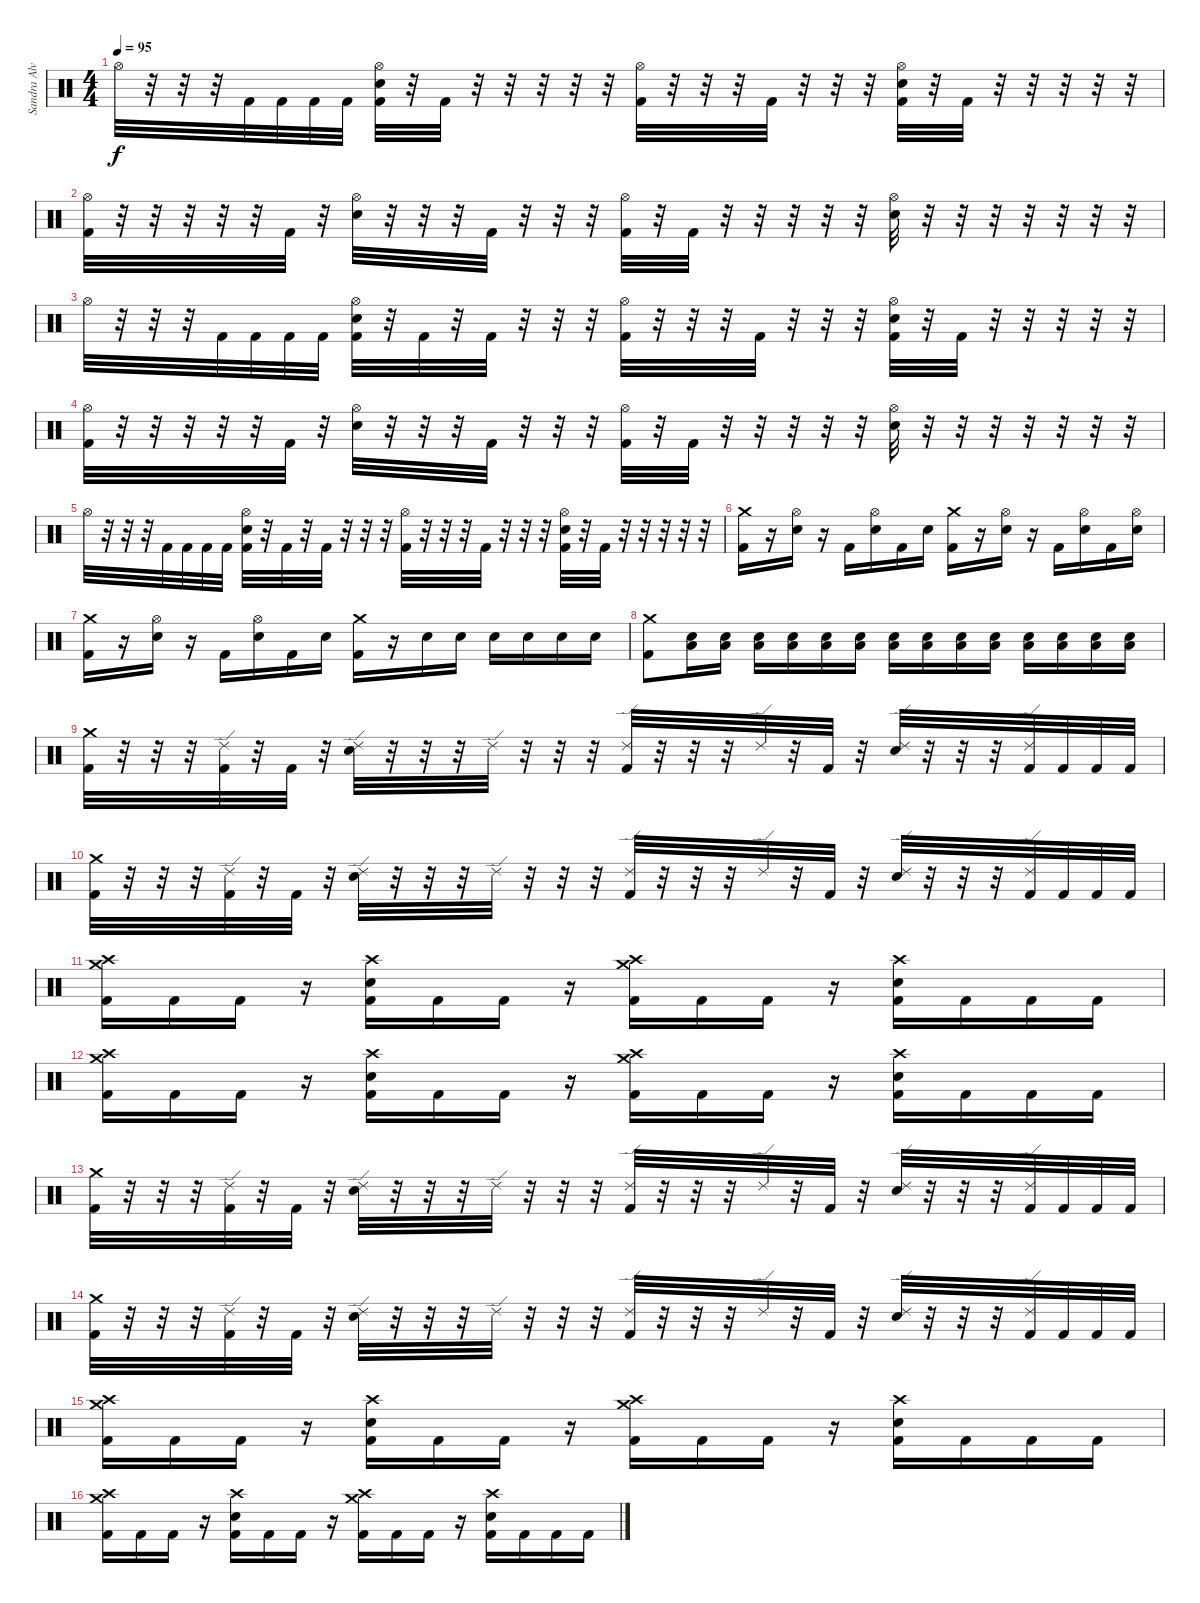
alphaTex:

\track ("Sandra Alvarenga" "Sandra Alv") {instrument percussion}
\staff
\articulation defaults
\ts (4 4)
\tempo 95
\clef neutral
\ks c "Hi-Hat (open)".32{dy f}
r.32 r.32 r.32 "Kick (hit) 2".32 "Kick (hit) 2".32 "Kick (hit) 2".32 "Kick (hit) 2".32 ("Hi-Hat (open)" "Electric Snare (hit)" "Kick (hit) 2").32 r.32 "Kick (hit) 2".32 r.32 r.32 r.32 r.32 r.32 ("Hi-Hat (open)" "Kick (hit) 2").32 r.32 r.32 r.32 "Kick (hit) 2".32 r.32 r.32 r.32 ("Hi-Hat (open)" "Electric Snare (hit)" "Kick (hit) 2").32 r.32 "Kick (hit) 2".32 r.32 r.32 r.32 r.32 r.32 |
("Hi-Hat (open)" "Kick (hit) 2").32 r.32 r.32 r.32 r.32 r.32 "Kick (hit) 2".32 r.32 ("Hi-Hat (open)" "Electric Snare (hit)").32 r.32 r.32 r.32 "Kick (hit) 2".32 r.32 r.32 r.32 ("Hi-Hat (open)" "Kick (hit) 2").32 r.32 "Kick (hit) 2".32 r.32 r.32 r.32 r.32 r.32 ("Hi-Hat (open)" "Electric Snare (hit)").32 r.32 r.32 r.32 r.32 r.32 r.32 r.32 |
"Hi-Hat (open)".32 r.32 r.32 r.32 "Kick (hit) 2".32 "Kick (hit) 2".32 "Kick (hit) 2".32 "Kick (hit) 2".32 ("Hi-Hat (open)" "Electric Snare (hit)" "Kick (hit) 2").32 r.32 "Kick (hit) 2".32 r.32 "Kick (hit) 2".32 r.32 r.32 r.32 ("Hi-Hat (open)" "Kick (hit) 2").32 r.32 r.32 r.32 "Kick (hit) 2".32 r.32 r.32 r.32 ("Hi-Hat (open)" "Electric Snare (hit)" "Kick (hit) 2").32 r.32 "Kick (hit) 2".32 r.32 r.32 r.32 r.32 r.32 |
("Hi-Hat (open)" "Kick (hit) 2").32 r.32 r.32 r.32 r.32 r.32 "Kick (hit) 2".32 r.32 ("Hi-Hat (open)" "Electric Snare (hit)").32 r.32 r.32 r.32 "Kick (hit) 2".32 r.32 r.32 r.32 ("Hi-Hat (open)" "Kick (hit) 2").32 r.32 "Kick (hit) 2".32 r.32 r.32 r.32 r.32 r.32 ("Hi-Hat (open)" "Electric Snare (hit)").32 r.32 r.32 r.32 r.32 r.32 r.32 r.32 |
"Hi-Hat (open)".32 r.32 r.32 r.32 "Kick (hit) 2".32 "Kick (hit) 2".32 "Kick (hit) 2".32 "Kick (hit) 2".32 ("Hi-Hat (open)" "Electric Snare (hit)" "Kick (hit) 2").32 r.32 "Kick (hit) 2".32 r.32 "Kick (hit) 2".32 r.32 r.32 r.32 ("Hi-Hat (open)" "Kick (hit) 2").32 r.32 r.32 r.32 "Kick (hit) 2".32 r.32 r.32 r.32 ("Hi-Hat (open)" "Electric Snare (hit)" "Kick (hit) 2").32 r.32 "Kick (hit) 2".32 r.32 r.32 r.32 r.32 r.32 |
("Crash medium (hit)" "Kick (hit) 2").16 r.16 ("Hi-Hat (open)" "Electric Snare (hit)").16 r.16 "Kick (hit) 2".16 ("Hi-Hat (open)" "Electric Snare (hit)").16 "Kick (hit) 2".16 "Electric Snare (hit)".16 ("Crash medium (hit)" "Kick (hit) 2").16 r.16 ("Hi-Hat (open)" "Electric Snare (hit)").16 r.16 "Kick (hit) 2".16 ("Hi-Hat (open)" "Electric Snare (hit)").16 "Kick (hit) 2".16 ("Hi-Hat (open)" "Electric Snare (hit)").16 |
("Crash medium (hit)" "Kick (hit) 2").16 r.16 ("Hi-Hat (open)" "Electric Snare (hit)").16 r.16 "Kick (hit) 2".16 ("Hi-Hat (open)" "Electric Snare (hit)").16 "Kick (hit) 2".16 "Electric Snare (hit)".16 ("Crash medium (hit)" "Kick (hit) 2").16 r.16 "Electric Snare (hit)".16 "Electric Snare (hit)".16 "Electric Snare (hit)".16 "Electric Snare (hit)".16 "Electric Snare (hit)".16 "Electric Snare (hit)".16 |
("Crash medium (hit)" "Kick (hit) 2").8 ("Low Floor Tom (hit)" "Electric Snare (hit)").16 ("Low Floor Tom (hit)" "Electric Snare (hit)").16 ("Low Floor Tom (hit)" "Electric Snare (hit)").16 ("Low Floor Tom (hit)" "Electric Snare (hit)").16 ("Low Floor Tom (hit)" "Electric Snare (hit)").16 ("Low Floor Tom (hit)" "Electric Snare (hit)").16 ("Low Floor Tom (hit)" "Electric Snare (hit)").16 ("Low Floor Tom (hit)" "Electric Snare (hit)").16 ("Low Floor Tom (hit)" "Electric Snare (hit)").16 ("Low Floor Tom (hit)" "Electric Snare (hit)").16 ("Low Floor Tom (hit)" "Electric Snare (hit)").16 ("Low Floor Tom (hit)" "Electric Snare (hit)").16 ("Low Floor Tom (hit)" "Electric Snare (hit)").16 ("Low Floor Tom (hit)" "Electric Snare (hit)").16 |
("Crash medium (hit)" "Kick (hit) 2").32 r.32 r.32 r.32 ("Ride (edge) 2" "Kick (hit) 2").32 r.32 "Kick (hit) 2".32 r.32 ("Ride (edge) 2" "Electric Snare (hit)").32 r.32 r.32 r.32 "Ride (edge) 2".32 r.32 r.32 r.32 ("Ride (edge) 2" "Kick (hit) 2").32 r.32 r.32 r.32 "Ride (edge) 2".32 r.32 "Kick (hit) 2".32 r.32 ("Ride (edge) 2" "Electric Snare (hit)").32 r.32 r.32 r.32 ("Ride (edge) 2" "Kick (hit) 2").32 "Kick (hit) 2".32 "Kick (hit) 2".32 "Kick (hit) 2".32 |
("Crash medium (hit)" "Kick (hit) 2").32 r.32 r.32 r.32 ("Ride (edge) 2" "Kick (hit) 2").32 r.32 "Kick (hit) 2".32 r.32 ("Ride (edge) 2" "Electric Snare (hit)").32 r.32 r.32 r.32 "Ride (edge) 2".32 r.32 r.32 r.32 ("Ride (edge) 2" "Kick (hit) 2").32 r.32 r.32 r.32 "Ride (edge) 2".32 r.32 "Kick (hit) 2".32 r.32 ("Ride (edge) 2" "Electric Snare (hit)").32 r.32 r.32 r.32 ("Ride (edge) 2" "Kick (hit) 2").32 "Kick (hit) 2".32 "Kick (hit) 2".32 "Kick (hit) 2".32 |
("Crash medium (hit)" "Crash high (hit)" "Kick (hit) 2").16 "Kick (hit) 2".16 "Kick (hit) 2".16 r.16 ("Crash high (hit)" "Electric Snare (hit)" "Kick (hit) 2").16 "Kick (hit) 2".16 "Kick (hit) 2".16 r.16 ("Crash medium (hit)" "Crash high (hit)" "Kick (hit) 2").16 "Kick (hit) 2".16 "Kick (hit) 2".16 r.16 ("Crash high (hit)" "Electric Snare (hit)" "Kick (hit) 2").16 "Kick (hit) 2".16 "Kick (hit) 2".16 "Kick (hit) 2".16 |
("Crash medium (hit)" "Crash high (hit)" "Kick (hit) 2").16 "Kick (hit) 2".16 "Kick (hit) 2".16 r.16 ("Crash high (hit)" "Electric Snare (hit)" "Kick (hit) 2").16 "Kick (hit) 2".16 "Kick (hit) 2".16 r.16 ("Crash medium (hit)" "Crash high (hit)" "Kick (hit) 2").16 "Kick (hit) 2".16 "Kick (hit) 2".16 r.16 ("Crash high (hit)" "Electric Snare (hit)" "Kick (hit) 2").16 "Kick (hit) 2".16 "Kick (hit) 2".16 "Kick (hit) 2".16 |
("Crash medium (hit)" "Kick (hit) 2").32 r.32 r.32 r.32 ("Ride (edge) 2" "Kick (hit) 2").32 r.32 "Kick (hit) 2".32 r.32 ("Ride (edge) 2" "Electric Snare (hit)").32 r.32 r.32 r.32 "Ride (edge) 2".32 r.32 r.32 r.32 ("Ride (edge) 2" "Kick (hit) 2").32 r.32 r.32 r.32 "Ride (edge) 2".32 r.32 "Kick (hit) 2".32 r.32 ("Ride (edge) 2" "Electric Snare (hit)").32 r.32 r.32 r.32 ("Ride (edge) 2" "Kick (hit) 2").32 "Kick (hit) 2".32 "Kick (hit) 2".32 "Kick (hit) 2".32 |
("Crash medium (hit)" "Kick (hit) 2").32 r.32 r.32 r.32 ("Ride (edge) 2" "Kick (hit) 2").32 r.32 "Kick (hit) 2".32 r.32 ("Ride (edge) 2" "Electric Snare (hit)").32 r.32 r.32 r.32 "Ride (edge) 2".32 r.32 r.32 r.32 ("Ride (edge) 2" "Kick (hit) 2").32 r.32 r.32 r.32 "Ride (edge) 2".32 r.32 "Kick (hit) 2".32 r.32 ("Ride (edge) 2" "Electric Snare (hit)").32 r.32 r.32 r.32 ("Ride (edge) 2" "Kick (hit) 2").32 "Kick (hit) 2".32 "Kick (hit) 2".32 "Kick (hit) 2".32 |
("Crash medium (hit)" "Crash high (hit)" "Kick (hit) 2").16 "Kick (hit) 2".16 "Kick (hit) 2".16 r.16 ("Crash high (hit)" "Electric Snare (hit)" "Kick (hit) 2").16 "Kick (hit) 2".16 "Kick (hit) 2".16 r.16 ("Crash medium (hit)" "Crash high (hit)" "Kick (hit) 2").16 "Kick (hit) 2".16 "Kick (hit) 2".16 r.16 ("Crash high (hit)" "Electric Snare (hit)" "Kick (hit) 2").16 "Kick (hit) 2".16 "Kick (hit) 2".16 "Kick (hit) 2".16 |
("Crash medium (hit)" "Crash high (hit)" "Kick (hit) 2").16 "Kick (hit) 2".16 "Kick (hit) 2".16 r.16 ("Crash high (hit)" "Electric Snare (hit)" "Kick (hit) 2").16 "Kick (hit) 2".16 "Kick (hit) 2".16 r.16 ("Crash medium (hit)" "Crash high (hit)" "Kick (hit) 2").16 "Kick (hit) 2".16 "Kick (hit) 2".16 r.16 ("Crash high (hit)" "Electric Snare (hit)" "Kick (hit) 2").16 "Kick (hit) 2".16 "Kick (hit) 2".16 "Kick (hit) 2".16
